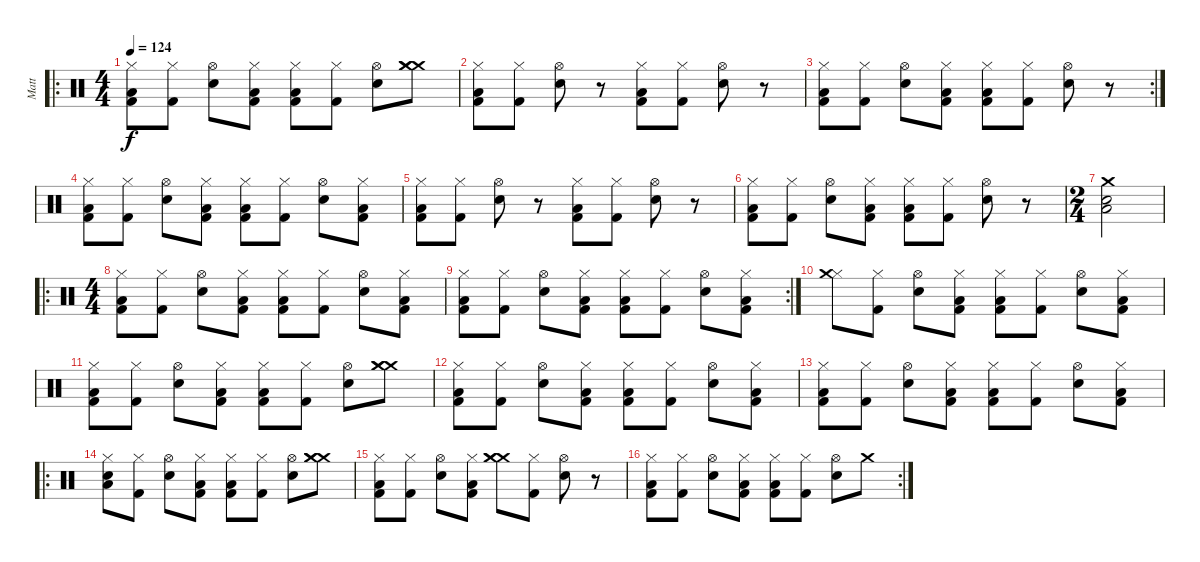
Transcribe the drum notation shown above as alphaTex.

\track ("Matt" "Matt") {instrument percussion}
\staff {score}
\articulation defaults
\ro
\ts (4 4)
\tempo 124
\clef neutral
\ks c
("Hi-Hat (closed)" "Kick (hit) 2" "Low Floor Tom (hit)").8{dy f} ("Kick (hit) 2" "Hi-Hat (closed)").8 ("Hi-Hat (open)" "Snare (hit) 2").8 ("Hi-Hat (closed)" "Kick (hit) 2" "Low Floor Tom (hit)").8 ("Hi-Hat (closed)" "Kick (hit) 2" "Low Floor Tom (hit)").8 ("Kick (hit) 2" "Hi-Hat (closed)").8 ("Hi-Hat (open)" "Snare (hit) 2").8 ("Crash medium (hit)" "Crash medium (hit)" "Crash medium (hit)").8 |
("Hi-Hat (closed)" "Kick (hit) 2" "Low Floor Tom (hit)").8 ("Kick (hit) 2" "Hi-Hat (closed)").8 ("Hi-Hat (open)" "Snare (hit) 2").8 r.8 ("Hi-Hat (closed)" "Kick (hit) 2" "Low Floor Tom (hit)").8 ("Kick (hit) 2" "Hi-Hat (closed)").8 ("Hi-Hat (open)" "Snare (hit) 2").8 r.8 |
\rc 2
("Hi-Hat (closed)" "Kick (hit) 2" "Low Floor Tom (hit)").8 ("Kick (hit) 2" "Hi-Hat (closed)").8 ("Hi-Hat (open)" "Snare (hit) 2").8 ("Hi-Hat (closed)" "Kick (hit) 2" "Low Floor Tom (hit)").8 ("Hi-Hat (closed)" "Kick (hit) 2" "Low Floor Tom (hit)").8 ("Kick (hit) 2" "Hi-Hat (closed)").8 ("Hi-Hat (open)" "Snare (hit) 2").8 r.8 |
("Hi-Hat (closed)" "Kick (hit) 2" "Low Floor Tom (hit)").8 ("Kick (hit) 2" "Hi-Hat (closed)").8 ("Hi-Hat (open)" "Snare (hit) 2").8 ("Hi-Hat (closed)" "Kick (hit) 2" "Low Floor Tom (hit)").8 ("Hi-Hat (closed)" "Kick (hit) 2" "Low Floor Tom (hit)").8 ("Kick (hit) 2" "Hi-Hat (closed)").8 ("Hi-Hat (open)" "Snare (hit) 2").8 ("Hi-Hat (closed)" "Kick (hit) 2" "Low Floor Tom (hit)").8 |
("Hi-Hat (closed)" "Kick (hit) 2" "Low Floor Tom (hit)").8 ("Kick (hit) 2" "Hi-Hat (closed)").8 ("Hi-Hat (open)" "Snare (hit) 2").8 r.8 ("Hi-Hat (closed)" "Kick (hit) 2" "Low Floor Tom (hit)").8 ("Kick (hit) 2" "Hi-Hat (closed)").8 ("Hi-Hat (open)" "Snare (hit) 2").8 r.8 |
("Hi-Hat (closed)" "Kick (hit) 2" "Low Floor Tom (hit)").8 ("Kick (hit) 2" "Hi-Hat (closed)").8 ("Hi-Hat (open)" "Snare (hit) 2").8 ("Hi-Hat (closed)" "Kick (hit) 2" "Low Floor Tom (hit)").8 ("Hi-Hat (closed)" "Kick (hit) 2" "Low Floor Tom (hit)").8 ("Kick (hit) 2" "Hi-Hat (closed)").8 ("Hi-Hat (open)" "Snare (hit) 2").8 r.8 |
\ts (2 4)
("Low Tom (hit)" "Crash medium (hit)" "Electric Snare (hit)").2 |
\ro
\ts (4 4)
("Hi-Hat (closed)" "Kick (hit) 2" "Low Floor Tom (hit)").8 ("Kick (hit) 2" "Hi-Hat (closed)").8 ("Hi-Hat (open)" "Snare (hit) 2").8 ("Hi-Hat (closed)" "Kick (hit) 2" "Low Floor Tom (hit)").8 ("Hi-Hat (closed)" "Kick (hit) 2" "Low Floor Tom (hit)").8 ("Kick (hit) 2" "Hi-Hat (closed)").8 ("Hi-Hat (open)" "Snare (hit) 2").8 ("Hi-Hat (closed)" "Kick (hit) 2" "Low Floor Tom (hit)").8 |
\rc 2
("Hi-Hat (closed)" "Kick (hit) 2" "Low Floor Tom (hit)").8 ("Kick (hit) 2" "Hi-Hat (closed)").8 ("Hi-Hat (open)" "Snare (hit) 2").8 ("Hi-Hat (closed)" "Kick (hit) 2" "Low Floor Tom (hit)").8 ("Hi-Hat (closed)" "Kick (hit) 2" "Low Floor Tom (hit)").8 ("Kick (hit) 2" "Hi-Hat (closed)").8 ("Hi-Hat (open)" "Snare (hit) 2").8 ("Hi-Hat (closed)" "Kick (hit) 2" "Low Floor Tom (hit)").8 |
("Hi-Hat (closed)" "Crash medium (hit)").8 ("Kick (hit) 2" "Hi-Hat (closed)").8 ("Hi-Hat (open)" "Snare (hit) 2").8 ("Hi-Hat (closed)" "Kick (hit) 2" "Low Floor Tom (hit)").8 ("Hi-Hat (closed)" "Kick (hit) 2" "Low Floor Tom (hit)").8 ("Kick (hit) 2" "Hi-Hat (closed)").8 ("Hi-Hat (open)" "Snare (hit) 2").8 ("Hi-Hat (closed)" "Kick (hit) 2" "Low Floor Tom (hit)").8 |
("Hi-Hat (closed)" "Kick (hit) 2" "Low Floor Tom (hit)").8 ("Kick (hit) 2" "Hi-Hat (closed)").8 ("Hi-Hat (open)" "Snare (hit) 2").8 ("Hi-Hat (closed)" "Kick (hit) 2" "Low Floor Tom (hit)").8 ("Hi-Hat (closed)" "Kick (hit) 2" "Low Floor Tom (hit)").8 ("Kick (hit) 2" "Hi-Hat (closed)").8 ("Hi-Hat (open)" "Snare (hit) 2").8 ("Crash medium (hit)" "Crash medium (hit)" "Crash medium (hit)").8 |
("Hi-Hat (closed)" "Kick (hit) 2" "Low Floor Tom (hit)").8 ("Kick (hit) 2" "Hi-Hat (closed)").8 ("Hi-Hat (open)" "Snare (hit) 2").8 ("Hi-Hat (closed)" "Kick (hit) 2" "Low Floor Tom (hit)").8 ("Hi-Hat (closed)" "Kick (hit) 2" "Low Floor Tom (hit)").8 ("Kick (hit) 2" "Hi-Hat (closed)").8 ("Hi-Hat (open)" "Snare (hit) 2").8 ("Hi-Hat (closed)" "Kick (hit) 2" "Low Floor Tom (hit)").8 |
("Hi-Hat (closed)" "Kick (hit) 2" "Low Floor Tom (hit)").8 ("Kick (hit) 2" "Hi-Hat (closed)").8 ("Hi-Hat (open)" "Snare (hit) 2").8 ("Hi-Hat (closed)" "Kick (hit) 2" "Low Floor Tom (hit)").8 ("Hi-Hat (closed)" "Kick (hit) 2" "Low Floor Tom (hit)").8 ("Kick (hit) 2" "Hi-Hat (closed)").8 ("Hi-Hat (open)" "Snare (hit) 2").8 ("Hi-Hat (closed)" "Kick (hit) 2" "Low Floor Tom (hit)").8 |
\ro
("Hi-Hat (closed)" "Electric Snare (hit)" "Low Floor Tom (hit)").8 ("Kick (hit) 2" "Hi-Hat (closed)").8 ("Hi-Hat (open)" "Snare (hit) 2").8 ("Hi-Hat (closed)" "Kick (hit) 2" "Low Floor Tom (hit)").8 ("Hi-Hat (closed)" "Kick (hit) 2" "Low Floor Tom (hit)").8 ("Kick (hit) 2" "Hi-Hat (closed)").8 ("Hi-Hat (open)" "Snare (hit) 2").8 ("Crash medium (hit)" "Crash medium (hit)" "Crash medium (hit)").8 |
("Hi-Hat (closed)" "Kick (hit) 2" "Low Floor Tom (hit)").8 ("Kick (hit) 2" "Hi-Hat (closed)").8 ("Hi-Hat (open)" "Snare (hit) 2").8 ("Hi-Hat (closed)" "Kick (hit) 2" "Low Floor Tom (hit)").8 ("Crash medium (hit)" "Crash medium (hit)" "Crash medium (hit)").8 ("Kick (hit) 2" "Hi-Hat (closed)").8 ("Hi-Hat (open)" "Snare (hit) 2").8 r.8 |
\rc 2
("Hi-Hat (closed)" "Kick (hit) 2" "Low Floor Tom (hit)").8 ("Kick (hit) 2" "Hi-Hat (closed)").8 ("Hi-Hat (open)" "Snare (hit) 2").8 ("Hi-Hat (closed)" "Kick (hit) 2" "Low Floor Tom (hit)").8 ("Hi-Hat (closed)" "Kick (hit) 2" "Low Floor Tom (hit)").8 ("Kick (hit) 2" "Hi-Hat (closed)").8 ("Hi-Hat (open)" "Snare (hit) 2").8 "Crash medium (hit)".8
